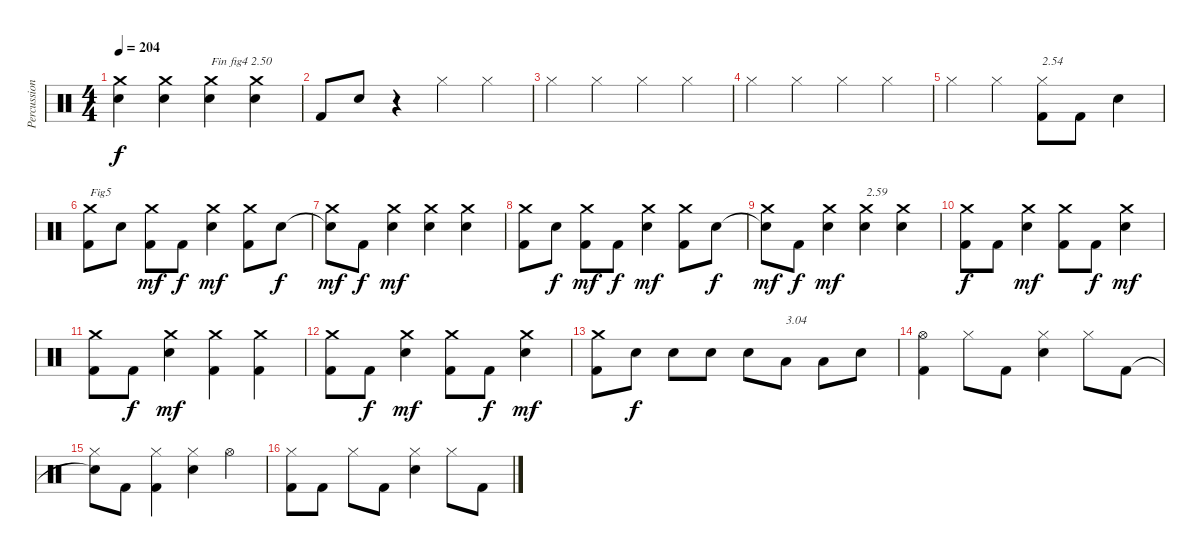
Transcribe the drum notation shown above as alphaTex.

\track ("Percussions" "Percussion") {instrument percussion}
\staff {score}
\articulation defaults
\ts (4 4)
\tempo 204
\clef neutral
\ks c
("Electric Snare (hit)" "Crash medium (hit)").4{dy f} ("Electric Snare (hit)" "Crash medium (hit)").4 ("Electric Snare (hit)" "Crash medium (hit)").4{txt "Fin fig4 2.50"} ("Electric Snare (hit)" "Crash medium (hit)").4 |
"Kick (hit) 2".8 "Electric Snare (hit)".8 r.4 "Hi-Hat (closed)".4 "Hi-Hat (closed)".4 |
"Hi-Hat (closed)".4 "Hi-Hat (closed)".4 "Hi-Hat (closed)".4 "Hi-Hat (closed)".4 |
"Hi-Hat (closed)".4 "Hi-Hat (closed)".4 "Hi-Hat (closed)".4 "Hi-Hat (closed)".4 |
"Hi-Hat (closed)".4 "Hi-Hat (closed)".4 ("Kick (hit) 2" "Hi-Hat (closed)").8{txt "2.54"} "Kick (hit) 2".8 "Electric Snare (hit)".4 |
("Kick (hit) 2" "Crash medium (hit)").8{txt "Fig5"} "Electric Snare (hit)".8 ("Kick (hit) 2" "Crash medium (hit)").8{dy mf} "Kick (hit) 2".8{dy f} ("Electric Snare (hit)" "Crash medium (hit)").4{dy mf} ("Kick (hit) 2" "Crash medium (hit)").8 "Electric Snare (hit)".8{dy f} |
("Electric Snare (hit)"{t} "Crash medium (hit)").8{dy mf} "Kick (hit) 2".8{dy f} ("Electric Snare (hit)" "Crash medium (hit)").4{dy mf} ("Electric Snare (hit)" "Crash medium (hit)").4 ("Electric Snare (hit)" "Crash medium (hit)").4 |
("Kick (hit) 2" "Crash medium (hit)").8 "Electric Snare (hit)".8{dy f} ("Kick (hit) 2" "Crash medium (hit)").8{dy mf} "Kick (hit) 2".8{dy f} ("Electric Snare (hit)" "Crash medium (hit)").4{dy mf} ("Kick (hit) 2" "Crash medium (hit)").8 "Electric Snare (hit)".8{dy f} |
("Electric Snare (hit)"{t} "Crash medium (hit)").8{dy mf} "Kick (hit) 2".8{dy f} ("Electric Snare (hit)" "Crash medium (hit)").4{dy mf} ("Electric Snare (hit)" "Crash medium (hit)").4{txt "2.59"} ("Electric Snare (hit)" "Crash medium (hit)").4 |
("Kick (hit) 2" "Crash medium (hit)").8{dy f} "Kick (hit) 2".8 ("Electric Snare (hit)" "Crash medium (hit)").4{dy mf} ("Kick (hit) 2" "Crash medium (hit)").8 "Kick (hit) 2".8{dy f} ("Electric Snare (hit)" "Crash medium (hit)").4{dy mf} |
("Kick (hit) 2" "Crash medium (hit)").8 "Kick (hit) 2".8{dy f} ("Electric Snare (hit)" "Crash medium (hit)").4{dy mf} ("Kick (hit) 2" "Crash medium (hit)").4 ("Kick (hit) 2" "Crash medium (hit)").4 |
("Kick (hit) 2" "Crash medium (hit)").8 "Kick (hit) 2".8{dy f} ("Electric Snare (hit)" "Crash medium (hit)").4{dy mf} ("Kick (hit) 2" "Crash medium (hit)").8 "Kick (hit) 2".8{dy f} ("Electric Snare (hit)" "Crash medium (hit)").4{dy mf} |
("Kick (hit) 2" "Crash medium (hit)").8 "Electric Snare (hit)".8{dy f} "Electric Snare (hit)".8 "Electric Snare (hit)".8 "Electric Snare (hit)".8 "Low Floor Tom (hit)".8{txt "3.04"} "Low Floor Tom (hit)".8 "Electric Snare (hit)".8 |
("Kick (hit) 2" "Hi-Hat (open)").4 "Hi-Hat (closed)".8 "Kick (hit) 2".8 ("Electric Snare (hit)" "Hi-Hat (closed)").4 "Hi-Hat (closed)".8 "Kick (hit) 2".8 |
("Snare (hit)"{t} "Hi-Hat (closed)").8 "Kick (hit) 2".8 ("Kick (hit) 2" "Hi-Hat (closed)").4 ("Electric Snare (hit)" "Hi-Hat (closed)").4 "Hi-Hat (open)".4 |
("Kick (hit) 2" "Hi-Hat (closed)").8 "Kick (hit) 2".8 "Hi-Hat (closed)".8 "Kick (hit) 2".8 ("Electric Snare (hit)" "Hi-Hat (closed)").4 "Hi-Hat (closed)".8 "Kick (hit) 2".8
